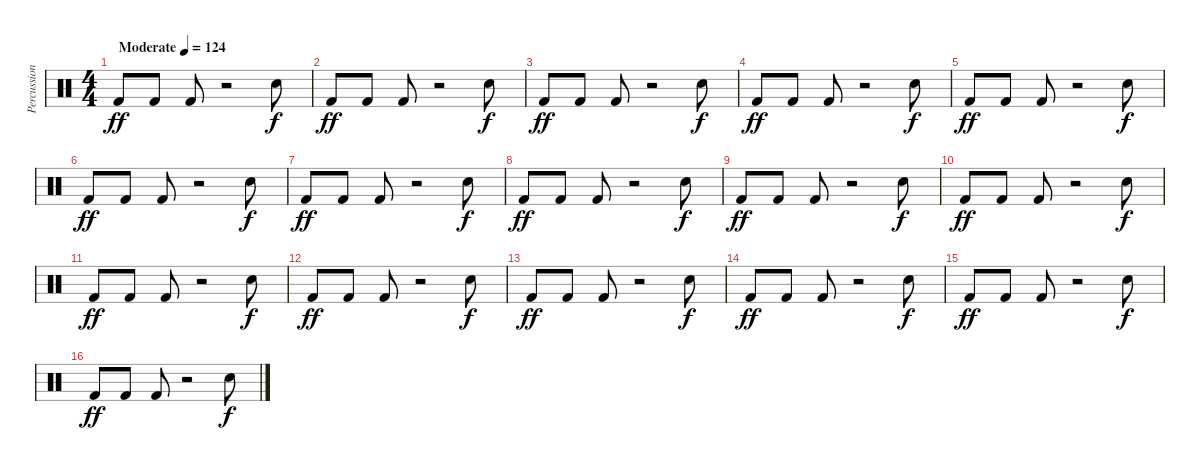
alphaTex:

\track ("Percussion" "Percussion") {instrument percussion}
\staff {score}
\articulation defaults
\ts (4 4)
\tempo (124 "Moderate")
\clef neutral
\ks c "Kick (hit) 2".8{dy ff} "Kick (hit) 2".8 "Kick (hit) 2".8
r.2 "Electric Snare (hit)".8{dy f} |
"Kick (hit) 2".8{dy ff} "Kick (hit) 2".8 "Kick (hit) 2".8 r.2 "Electric Snare (hit)".8{dy f} |
"Kick (hit) 2".8{dy ff} "Kick (hit) 2".8 "Kick (hit) 2".8 r.2 "Electric Snare (hit)".8{dy f} |
"Kick (hit) 2".8{dy ff} "Kick (hit) 2".8 "Kick (hit) 2".8 r.2 "Electric Snare (hit)".8{dy f} |
"Kick (hit) 2".8{dy ff} "Kick (hit) 2".8 "Kick (hit) 2".8 r.2 "Electric Snare (hit)".8{dy f} |
"Kick (hit) 2".8{dy ff} "Kick (hit) 2".8 "Kick (hit) 2".8 r.2 "Electric Snare (hit)".8{dy f} |
"Kick (hit) 2".8{dy ff} "Kick (hit) 2".8 "Kick (hit) 2".8 r.2 "Electric Snare (hit)".8{dy f} |
"Kick (hit) 2".8{dy ff} "Kick (hit) 2".8 "Kick (hit) 2".8 r.2 "Electric Snare (hit)".8{dy f} |
"Kick (hit) 2".8{dy ff} "Kick (hit) 2".8 "Kick (hit) 2".8 r.2 "Electric Snare (hit)".8{dy f} |
"Kick (hit) 2".8{dy ff} "Kick (hit) 2".8 "Kick (hit) 2".8 r.2 "Electric Snare (hit)".8{dy f} |
"Kick (hit) 2".8{dy ff} "Kick (hit) 2".8 "Kick (hit) 2".8 r.2 "Electric Snare (hit)".8{dy f} |
"Kick (hit) 2".8{dy ff} "Kick (hit) 2".8 "Kick (hit) 2".8 r.2 "Electric Snare (hit)".8{dy f} |
"Kick (hit) 2".8{dy ff} "Kick (hit) 2".8 "Kick (hit) 2".8 r.2 "Electric Snare (hit)".8{dy f} |
"Kick (hit) 2".8{dy ff} "Kick (hit) 2".8 "Kick (hit) 2".8 r.2 "Electric Snare (hit)".8{dy f} |
"Kick (hit) 2".8{dy ff} "Kick (hit) 2".8 "Kick (hit) 2".8 r.2 "Electric Snare (hit)".8{dy f} |
"Kick (hit) 2".8{dy ff} "Kick (hit) 2".8 "Kick (hit) 2".8 r.2 "Electric Snare (hit)".8{dy f}
